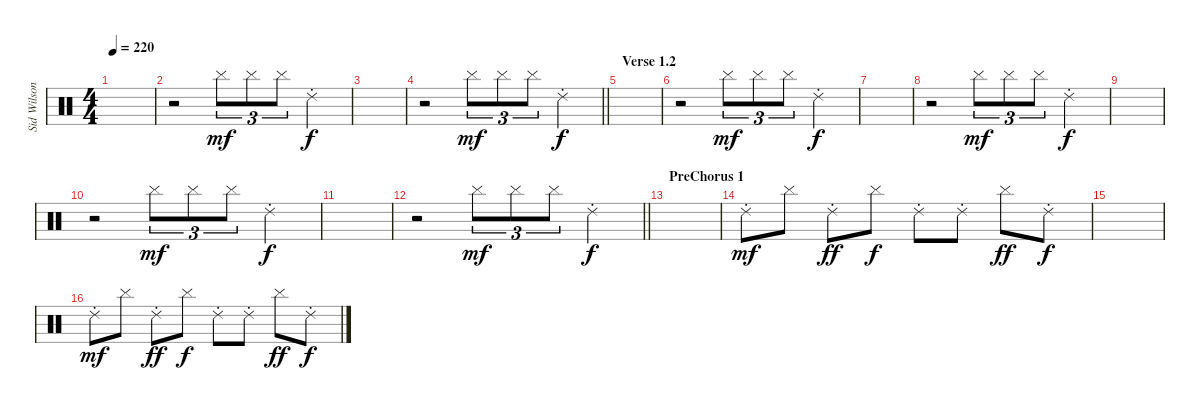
\track ("Sid Wilson" "Sid Wilson") {instrument percussion}
\staff {score}
\articulation defaults
\ts (4 4)
\tempo 220
\clef neutral
\ks c
|
r.2 "Cymbal (hit)".8{tu (3 2) dy mf} "Cymbal (hit)".8{tu (3 2)} "Cymbal (hit)".8{tu (3 2)} "Ride (choke) 2".4{dy f} |
|
\barLineRight lightlight
r.2 "Cymbal (hit)".8{tu (3 2) dy mf} "Cymbal (hit)".8{tu (3 2)} "Cymbal (hit)".8{tu (3 2)} "Ride (choke) 2".4{dy f} |
\section ("" "Verse 1.2")
|
r.2 "Cymbal (hit)".8{tu (3 2) dy mf} "Cymbal (hit)".8{tu (3 2)} "Cymbal (hit)".8{tu (3 2)} "Ride (choke) 2".4{dy f} |
|
r.2 "Cymbal (hit)".8{tu (3 2) dy mf} "Cymbal (hit)".8{tu (3 2)} "Cymbal (hit)".8{tu (3 2)} "Ride (choke) 2".4{dy f} |
|
r.2 "Cymbal (hit)".8{tu (3 2) dy mf} "Cymbal (hit)".8{tu (3 2)} "Cymbal (hit)".8{tu (3 2)} "Ride (choke) 2".4{dy f} |
|
\barLineRight lightlight
r.2 "Cymbal (hit)".8{tu (3 2) dy mf} "Cymbal (hit)".8{tu (3 2)} "Cymbal (hit)".8{tu (3 2)} "Ride (choke) 2".4{dy f} |
\section ("" "PreChorus 1")
|
"Ride (choke) 2".8{dy mf} "Cymbal (hit)".8 "Ride (choke) 2".8{dy ff} "Cymbal (hit)".8{dy f} "Ride (choke) 2".8 "Ride (choke) 2".8 "Cymbal (hit)".8{dy ff} "Ride (choke) 2".8{dy f} |
|
"Ride (choke) 2".8{dy mf} "Cymbal (hit)".8 "Ride (choke) 2".8{dy ff} "Cymbal (hit)".8{dy f} "Ride (choke) 2".8 "Ride (choke) 2".8 "Cymbal (hit)".8{dy ff} "Ride (choke) 2".8{dy f}
